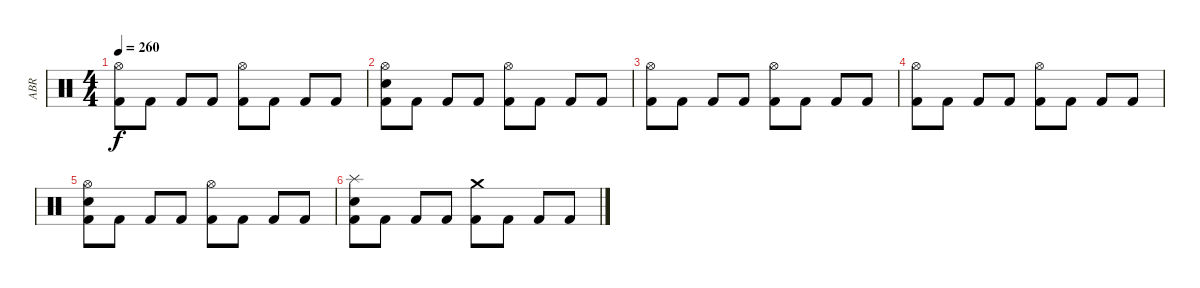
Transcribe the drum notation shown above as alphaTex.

\track ("ABR" "ABR") {instrument percussion}
\staff {score}
\articulation defaults
\ts (4 4)
\tempo 260
\clef neutral
\ks c
("Hi-Hat (open)" "Kick (hit) 2").8{dy f} "Kick (hit) 2".8 "Kick (hit) 2".8 "Kick (hit) 2".8 ("Hi-Hat (open)" "Kick (hit) 2").8 "Kick (hit) 2".8 "Kick (hit) 2".8 "Kick (hit) 2".8 |
("Hi-Hat (open)" "Snare (hit) 2" "Kick (hit) 2").8 "Kick (hit) 2".8 "Kick (hit) 2".8 "Kick (hit) 2".8 ("Hi-Hat (open)" "Kick (hit) 2").8 "Kick (hit) 2".8 "Kick (hit) 2".8 "Kick (hit) 2".8 |
("Hi-Hat (open)" "Kick (hit) 2").8{volume 0} "Kick (hit) 2".8 "Kick (hit) 2".8 "Kick (hit) 2".8 ("Hi-Hat (open)" "Kick (hit) 2").8 "Kick (hit) 2".8 "Kick (hit) 2".8 "Kick (hit) 2".8 |
("Hi-Hat (open)" "Kick (hit) 2").8 "Kick (hit) 2".8 "Kick (hit) 2".8 "Kick (hit) 2".8 ("Hi-Hat (open)" "Kick (hit) 2").8 "Kick (hit) 2".8 "Kick (hit) 2".8 "Kick (hit) 2".8 |
("Hi-Hat (open)" "Snare (hit) 2" "Kick (hit) 2").8 "Kick (hit) 2".8 "Kick (hit) 2".8 "Kick (hit) 2".8 ("Hi-Hat (open)" "Kick (hit) 2").8 "Kick (hit) 2".8 "Kick (hit) 2".8 "Kick (hit) 2".8 |
("Splash (hit)" "Snare (hit) 2" "Kick (hit) 2").8 "Kick (hit) 2".8 "Kick (hit) 2".8 "Kick (hit) 2".8 ("Crash medium (hit)" "Kick (hit) 2").8 "Kick (hit) 2".8 "Kick (hit) 2".8 "Kick (hit) 2".8
